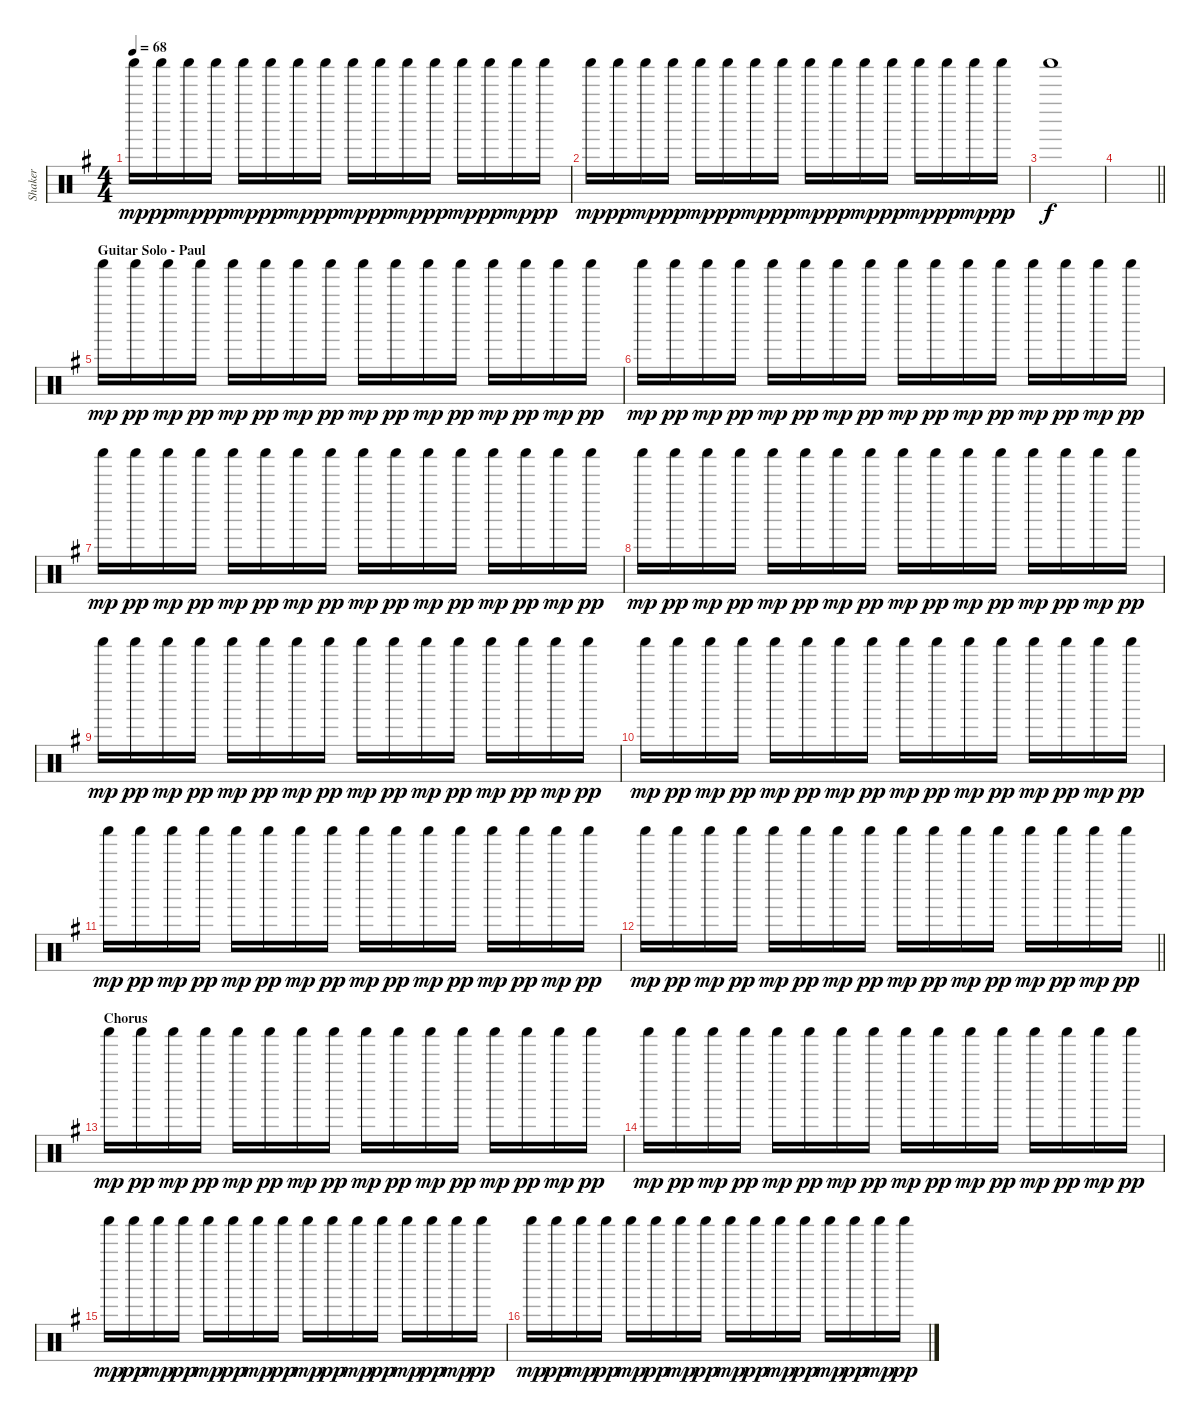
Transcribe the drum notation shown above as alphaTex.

\track ("Shaker" "Shaker") {instrument percussion}
\staff {score}
\articulation defaults
\ts (4 4)
\tempo 68
\clef neutral
\ks g "Shaker (hit)".16{dy mp} "Shaker (hit)".16{dy pp} "Shaker (hit)".16{dy mp} "Shaker (hit)".16{dy pp} "Shaker (hit)".16{dy mp} "Shaker (hit)".16{dy pp} "Shaker (hit)".16{dy mp} "Shaker (hit)".16{dy pp} "Shaker (hit)".16{dy mp} "Shaker (hit)".16{dy pp} "Shaker (hit)".16{dy mp} "Shaker (hit)".16{dy pp} "Shaker (hit)".16{dy mp} "Shaker (hit)".16{dy pp} "Shaker (hit)".16{dy mp} "Shaker (hit)".16{dy pp}
|
"Shaker (hit)".16{dy mp} "Shaker (hit)".16{dy pp} "Shaker (hit)".16{dy mp} "Shaker (hit)".16{dy pp} "Shaker (hit)".16{dy mp} "Shaker (hit)".16{dy pp} "Shaker (hit)".16{dy mp} "Shaker (hit)".16{dy pp} "Shaker (hit)".16{dy mp} "Shaker (hit)".16{dy pp} "Shaker (hit)".16{dy mp} "Shaker (hit)".16{dy pp} "Shaker (hit)".16{dy mp} "Shaker (hit)".16{dy pp} "Shaker (hit)".16{dy mp} "Shaker (hit)".16{dy pp} |
"Shaker (hit)".1{dy f} |
\barLineRight lightlight
|
\section ("" "Guitar Solo - Paul")
"Shaker (hit)".16{dy mp} "Shaker (hit)".16{dy pp} "Shaker (hit)".16{dy mp} "Shaker (hit)".16{dy pp} "Shaker (hit)".16{dy mp} "Shaker (hit)".16{dy pp} "Shaker (hit)".16{dy mp} "Shaker (hit)".16{dy pp} "Shaker (hit)".16{dy mp} "Shaker (hit)".16{dy pp} "Shaker (hit)".16{dy mp} "Shaker (hit)".16{dy pp} "Shaker (hit)".16{dy mp} "Shaker (hit)".16{dy pp} "Shaker (hit)".16{dy mp} "Shaker (hit)".16{dy pp} |
"Shaker (hit)".16{dy mp} "Shaker (hit)".16{dy pp} "Shaker (hit)".16{dy mp} "Shaker (hit)".16{dy pp} "Shaker (hit)".16{dy mp} "Shaker (hit)".16{dy pp} "Shaker (hit)".16{dy mp} "Shaker (hit)".16{dy pp} "Shaker (hit)".16{dy mp} "Shaker (hit)".16{dy pp} "Shaker (hit)".16{dy mp} "Shaker (hit)".16{dy pp} "Shaker (hit)".16{dy mp} "Shaker (hit)".16{dy pp} "Shaker (hit)".16{dy mp} "Shaker (hit)".16{dy pp} |
"Shaker (hit)".16{dy mp} "Shaker (hit)".16{dy pp} "Shaker (hit)".16{dy mp} "Shaker (hit)".16{dy pp} "Shaker (hit)".16{dy mp} "Shaker (hit)".16{dy pp} "Shaker (hit)".16{dy mp} "Shaker (hit)".16{dy pp} "Shaker (hit)".16{dy mp} "Shaker (hit)".16{dy pp} "Shaker (hit)".16{dy mp} "Shaker (hit)".16{dy pp} "Shaker (hit)".16{dy mp} "Shaker (hit)".16{dy pp} "Shaker (hit)".16{dy mp} "Shaker (hit)".16{dy pp} |
"Shaker (hit)".16{dy mp} "Shaker (hit)".16{dy pp} "Shaker (hit)".16{dy mp} "Shaker (hit)".16{dy pp} "Shaker (hit)".16{dy mp} "Shaker (hit)".16{dy pp} "Shaker (hit)".16{dy mp} "Shaker (hit)".16{dy pp} "Shaker (hit)".16{dy mp} "Shaker (hit)".16{dy pp} "Shaker (hit)".16{dy mp} "Shaker (hit)".16{dy pp} "Shaker (hit)".16{dy mp} "Shaker (hit)".16{dy pp} "Shaker (hit)".16{dy mp} "Shaker (hit)".16{dy pp} |
"Shaker (hit)".16{dy mp} "Shaker (hit)".16{dy pp} "Shaker (hit)".16{dy mp} "Shaker (hit)".16{dy pp} "Shaker (hit)".16{dy mp} "Shaker (hit)".16{dy pp} "Shaker (hit)".16{dy mp} "Shaker (hit)".16{dy pp} "Shaker (hit)".16{dy mp} "Shaker (hit)".16{dy pp} "Shaker (hit)".16{dy mp} "Shaker (hit)".16{dy pp} "Shaker (hit)".16{dy mp} "Shaker (hit)".16{dy pp} "Shaker (hit)".16{dy mp} "Shaker (hit)".16{dy pp} |
"Shaker (hit)".16{dy mp} "Shaker (hit)".16{dy pp} "Shaker (hit)".16{dy mp} "Shaker (hit)".16{dy pp} "Shaker (hit)".16{dy mp} "Shaker (hit)".16{dy pp} "Shaker (hit)".16{dy mp} "Shaker (hit)".16{dy pp} "Shaker (hit)".16{dy mp} "Shaker (hit)".16{dy pp} "Shaker (hit)".16{dy mp} "Shaker (hit)".16{dy pp} "Shaker (hit)".16{dy mp} "Shaker (hit)".16{dy pp} "Shaker (hit)".16{dy mp} "Shaker (hit)".16{dy pp} |
"Shaker (hit)".16{dy mp} "Shaker (hit)".16{dy pp} "Shaker (hit)".16{dy mp} "Shaker (hit)".16{dy pp} "Shaker (hit)".16{dy mp} "Shaker (hit)".16{dy pp} "Shaker (hit)".16{dy mp} "Shaker (hit)".16{dy pp} "Shaker (hit)".16{dy mp} "Shaker (hit)".16{dy pp} "Shaker (hit)".16{dy mp} "Shaker (hit)".16{dy pp} "Shaker (hit)".16{dy mp} "Shaker (hit)".16{dy pp} "Shaker (hit)".16{dy mp} "Shaker (hit)".16{dy pp} |
\barLineRight lightlight "Shaker (hit)".16{dy mp} "Shaker (hit)".16{dy pp} "Shaker (hit)".16{dy mp} "Shaker (hit)".16{dy pp} "Shaker (hit)".16{dy mp} "Shaker (hit)".16{dy pp} "Shaker (hit)".16{dy mp} "Shaker (hit)".16{dy pp} "Shaker (hit)".16{dy mp} "Shaker (hit)".16{dy pp} "Shaker (hit)".16{dy mp} "Shaker (hit)".16{dy pp} "Shaker (hit)".16{dy mp} "Shaker (hit)".16{dy pp} "Shaker (hit)".16{dy mp} "Shaker (hit)".16{dy pp}
|
\section ("" "Chorus")
"Shaker (hit)".16{dy mp} "Shaker (hit)".16{dy pp} "Shaker (hit)".16{dy mp} "Shaker (hit)".16{dy pp} "Shaker (hit)".16{dy mp} "Shaker (hit)".16{dy pp} "Shaker (hit)".16{dy mp} "Shaker (hit)".16{dy pp} "Shaker (hit)".16{dy mp} "Shaker (hit)".16{dy pp} "Shaker (hit)".16{dy mp} "Shaker (hit)".16{dy pp} "Shaker (hit)".16{dy mp} "Shaker (hit)".16{dy pp} "Shaker (hit)".16{dy mp} "Shaker (hit)".16{dy pp} |
"Shaker (hit)".16{dy mp} "Shaker (hit)".16{dy pp} "Shaker (hit)".16{dy mp} "Shaker (hit)".16{dy pp} "Shaker (hit)".16{dy mp} "Shaker (hit)".16{dy pp} "Shaker (hit)".16{dy mp} "Shaker (hit)".16{dy pp} "Shaker (hit)".16{dy mp} "Shaker (hit)".16{dy pp} "Shaker (hit)".16{dy mp} "Shaker (hit)".16{dy pp} "Shaker (hit)".16{dy mp} "Shaker (hit)".16{dy pp} "Shaker (hit)".16{dy mp} "Shaker (hit)".16{dy pp} |
"Shaker (hit)".16{dy mp} "Shaker (hit)".16{dy pp} "Shaker (hit)".16{dy mp} "Shaker (hit)".16{dy pp} "Shaker (hit)".16{dy mp} "Shaker (hit)".16{dy pp} "Shaker (hit)".16{dy mp} "Shaker (hit)".16{dy pp} "Shaker (hit)".16{dy mp} "Shaker (hit)".16{dy pp} "Shaker (hit)".16{dy mp} "Shaker (hit)".16{dy pp} "Shaker (hit)".16{dy mp} "Shaker (hit)".16{dy pp} "Shaker (hit)".16{dy mp} "Shaker (hit)".16{dy pp} |
"Shaker (hit)".16{dy mp} "Shaker (hit)".16{dy pp} "Shaker (hit)".16{dy mp} "Shaker (hit)".16{dy pp} "Shaker (hit)".16{dy mp} "Shaker (hit)".16{dy pp} "Shaker (hit)".16{dy mp} "Shaker (hit)".16{dy pp} "Shaker (hit)".16{dy mp} "Shaker (hit)".16{dy pp} "Shaker (hit)".16{dy mp} "Shaker (hit)".16{dy pp} "Shaker (hit)".16{dy mp} "Shaker (hit)".16{dy pp} "Shaker (hit)".16{dy mp} "Shaker (hit)".16{dy pp}
